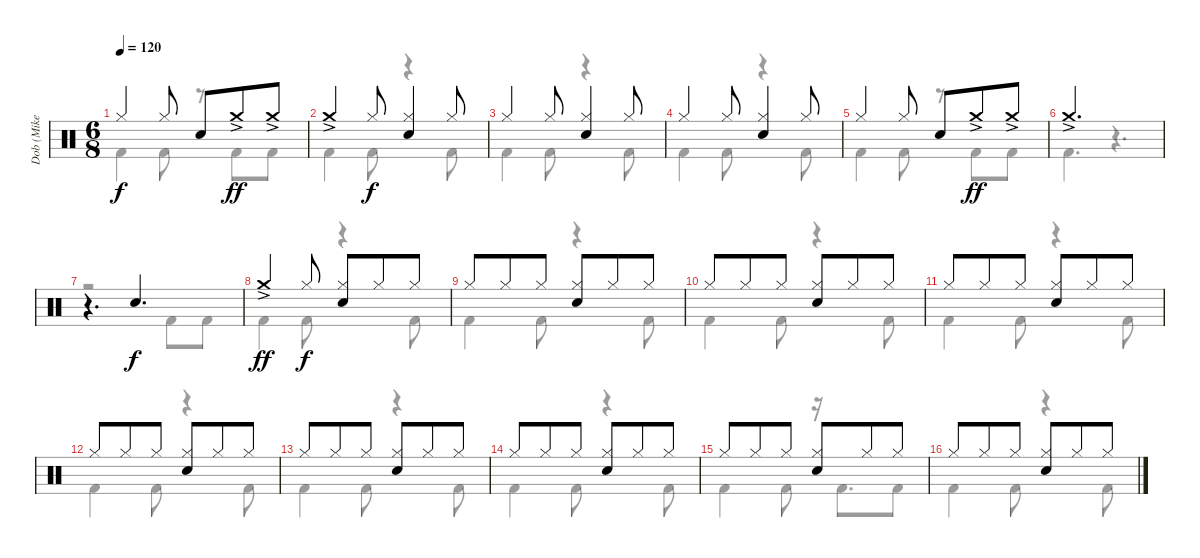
\track ("Dob (Mike Terrana)" "Dob (Mike ") {instrument percussion}
\staff {score}
\articulation defaults
\voice
\ts (6 8)
\tempo 120
\clef neutral
\ks c "Hi-Hat (closed)".4{dy f} "Hi-Hat (closed)".8 "Electric Snare (hit)".8 "Crash medium (hit)"{ac}.8{dy ff} "Crash medium (hit)"{ac}.8
|
"Crash medium (hit)"{ac}.4 "Hi-Hat (closed)".8{dy f} ("Hi-Hat (closed)" "Electric Snare (hit)").4 "Hi-Hat (closed)".8 |
"Hi-Hat (closed)".4 "Hi-Hat (closed)".8 ("Hi-Hat (closed)" "Electric Snare (hit)").4 "Hi-Hat (closed)".8 |
"Hi-Hat (closed)".4 "Hi-Hat (closed)".8 ("Hi-Hat (closed)" "Electric Snare (hit)").4 "Hi-Hat (closed)".8 |
"Hi-Hat (closed)".4 "Hi-Hat (closed)".8 "Electric Snare (hit)".8 "Crash medium (hit)"{ac}.8{dy ff} "Crash medium (hit)"{ac}.8 |
"Crash medium (hit)"{ac}.2{d} |
r.4{d} "Electric Snare (hit)".4{d dy f} |
"Crash medium (hit)"{ac}.4{dy ff} "Hi-Hat (closed)".8{dy f} ("Hi-Hat (closed)" "Electric Snare (hit)").8 "Hi-Hat (closed)".8 "Hi-Hat (closed)".8 |
"Hi-Hat (closed)".8 "Hi-Hat (closed)".8 "Hi-Hat (closed)".8 ("Hi-Hat (closed)" "Electric Snare (hit)").8 "Hi-Hat (closed)".8 "Hi-Hat (closed)".8 |
"Hi-Hat (closed)".8 "Hi-Hat (closed)".8 "Hi-Hat (closed)".8 ("Hi-Hat (closed)" "Electric Snare (hit)").8 "Hi-Hat (closed)".8 "Hi-Hat (closed)".8 |
"Hi-Hat (closed)".8 "Hi-Hat (closed)".8 "Hi-Hat (closed)".8 ("Hi-Hat (closed)" "Electric Snare (hit)").8 "Hi-Hat (closed)".8 "Hi-Hat (closed)".8 |
"Hi-Hat (closed)".8 "Hi-Hat (closed)".8 "Hi-Hat (closed)".8 ("Hi-Hat (closed)" "Electric Snare (hit)").8 "Hi-Hat (closed)".8 "Hi-Hat (closed)".8 |
"Hi-Hat (closed)".8 "Hi-Hat (closed)".8 "Hi-Hat (closed)".8 ("Hi-Hat (closed)" "Electric Snare (hit)").8 "Hi-Hat (closed)".8 "Hi-Hat (closed)".8 |
"Hi-Hat (closed)".8 "Hi-Hat (closed)".8 "Hi-Hat (closed)".8 ("Hi-Hat (closed)" "Electric Snare (hit)").8 "Hi-Hat (closed)".8 "Hi-Hat (closed)".8 |
"Hi-Hat (closed)".8 "Hi-Hat (closed)".8 "Hi-Hat (closed)".8 ("Hi-Hat (closed)" "Electric Snare (hit)").8 "Hi-Hat (closed)".8 "Hi-Hat (closed)".8 |
"Hi-Hat (closed)".8 "Hi-Hat (closed)".8 "Hi-Hat (closed)".8 ("Hi-Hat (closed)" "Electric Snare (hit)").8 "Hi-Hat (closed)".8 "Hi-Hat (closed)".8
\voice
\clef neutral
\ottava regular
\simile none
\ks c "Kick (hit) 2".4{dy f} "Kick (hit) 2".8
r.8 "Kick (hit) 2".8 "Kick (hit) 2".8 |
"Kick (hit) 2".4 "Kick (hit) 2".8 r.4 "Kick (hit) 2".8 |
"Kick (hit) 2".4 "Kick (hit) 2".8 r.4 "Kick (hit) 2".8 |
"Kick (hit) 2".4 "Kick (hit) 2".8 r.4 "Kick (hit) 2".8 |
"Kick (hit) 2".4 "Kick (hit) 2".8 r.8 "Kick (hit) 2".8 "Kick (hit) 2".8 |
"Kick (hit) 2".4{d} r.4{d} |
r.2 "Kick (hit) 2".8 "Kick (hit) 2".8 |
"Kick (hit) 2".4 "Kick (hit) 2".8 r.4 "Kick (hit) 2".8 |
"Kick (hit) 2".4 "Kick (hit) 2".8 r.4 "Kick (hit) 2".8 |
"Kick (hit) 2".4 "Kick (hit) 2".8 r.4 "Kick (hit) 2".8 |
"Kick (hit) 2".4 "Kick (hit) 2".8 r.4 "Kick (hit) 2".8 |
"Kick (hit) 2".4 "Kick (hit) 2".8 r.4 "Kick (hit) 2".8 |
"Kick (hit) 2".4 "Kick (hit) 2".8 r.4 "Kick (hit) 2".8 |
"Kick (hit) 2".4 "Kick (hit) 2".8 r.4 "Kick (hit) 2".8 |
"Kick (hit) 2".4 "Kick (hit) 2".8 r.16 "Kick (hit) 2".8{d} "Kick (hit) 2".8 |
"Kick (hit) 2".4 "Kick (hit) 2".8 r.4 "Kick (hit) 2".8
